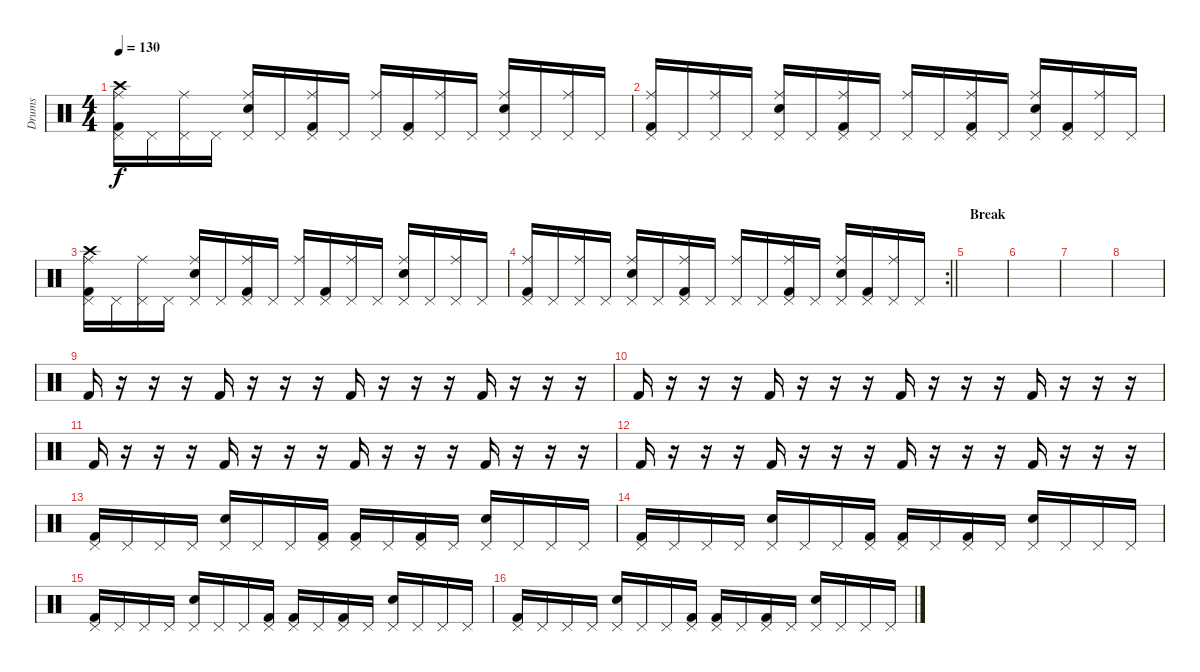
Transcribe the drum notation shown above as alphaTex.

\track ("Drums" "Drums") {instrument percussion}
\staff {score}
\articulation defaults
\ts (4 4)
\tempo 130
\clef neutral
\ks c
("Crash high (hit)" "Pedal Hi-Hat (hit)" "Ride (middle)" "Kick (hit) 2").16{dy f} "Pedal Hi-Hat (hit)".16 ("Pedal Hi-Hat (hit)" "Ride (middle)").16 "Pedal Hi-Hat (hit)".16 ("Pedal Hi-Hat (hit)" "Ride (middle)" "Electric Snare (hit)").16 "Pedal Hi-Hat (hit)".16 ("Pedal Hi-Hat (hit)" "Ride (middle)" "Kick (hit) 2").16 "Pedal Hi-Hat (hit)".16 ("Pedal Hi-Hat (hit)" "Ride (middle)").16 ("Pedal Hi-Hat (hit)" "Kick (hit) 2").16 ("Pedal Hi-Hat (hit)" "Ride (middle)").16 "Pedal Hi-Hat (hit)".16 ("Pedal Hi-Hat (hit)" "Ride (middle)" "Electric Snare (hit)").16 "Pedal Hi-Hat (hit)".16 ("Pedal Hi-Hat (hit)" "Ride (middle)").16 "Pedal Hi-Hat (hit)".16 |
("Ride (middle)" "Pedal Hi-Hat (hit)" "Kick (hit) 2").16 "Pedal Hi-Hat (hit)".16 ("Ride (middle)" "Pedal Hi-Hat (hit)").16 "Pedal Hi-Hat (hit)".16 ("Ride (middle)" "Pedal Hi-Hat (hit)" "Electric Snare (hit)").16 "Pedal Hi-Hat (hit)".16 ("Ride (middle)" "Pedal Hi-Hat (hit)" "Kick (hit) 2").16 "Pedal Hi-Hat (hit)".16 ("Ride (middle)" "Pedal Hi-Hat (hit)").16 "Pedal Hi-Hat (hit)".16 ("Ride (middle)" "Pedal Hi-Hat (hit)" "Kick (hit) 2").16 "Pedal Hi-Hat (hit)".16 ("Ride (middle)" "Pedal Hi-Hat (hit)" "Electric Snare (hit)").16 ("Pedal Hi-Hat (hit)" "Kick (hit) 2").16 ("Ride (middle)" "Pedal Hi-Hat (hit)").16 "Pedal Hi-Hat (hit)".16 |
("Crash high (hit)" "Pedal Hi-Hat (hit)" "Ride (middle)" "Kick (hit) 2").16 "Pedal Hi-Hat (hit)".16 ("Pedal Hi-Hat (hit)" "Ride (middle)").16 "Pedal Hi-Hat (hit)".16 ("Pedal Hi-Hat (hit)" "Ride (middle)" "Electric Snare (hit)").16 "Pedal Hi-Hat (hit)".16 ("Pedal Hi-Hat (hit)" "Ride (middle)" "Kick (hit) 2").16 "Pedal Hi-Hat (hit)".16 ("Pedal Hi-Hat (hit)" "Ride (middle)").16 ("Pedal Hi-Hat (hit)" "Kick (hit) 2").16 ("Pedal Hi-Hat (hit)" "Ride (middle)").16 "Pedal Hi-Hat (hit)".16 ("Pedal Hi-Hat (hit)" "Ride (middle)" "Electric Snare (hit)").16 "Pedal Hi-Hat (hit)".16 ("Pedal Hi-Hat (hit)" "Ride (middle)").16 "Pedal Hi-Hat (hit)".16 |
\rc 2
\barLineRight lightlight
("Ride (middle)" "Pedal Hi-Hat (hit)" "Kick (hit) 2").16 "Pedal Hi-Hat (hit)".16 ("Ride (middle)" "Pedal Hi-Hat (hit)").16 "Pedal Hi-Hat (hit)".16 ("Ride (middle)" "Pedal Hi-Hat (hit)" "Electric Snare (hit)").16 "Pedal Hi-Hat (hit)".16 ("Ride (middle)" "Pedal Hi-Hat (hit)" "Kick (hit) 2").16 "Pedal Hi-Hat (hit)".16 ("Ride (middle)" "Pedal Hi-Hat (hit)").16 "Pedal Hi-Hat (hit)".16 ("Ride (middle)" "Pedal Hi-Hat (hit)" "Kick (hit) 2").16 "Pedal Hi-Hat (hit)".16 ("Ride (middle)" "Pedal Hi-Hat (hit)" "Electric Snare (hit)").16 ("Pedal Hi-Hat (hit)" "Kick (hit) 2").16 ("Ride (middle)" "Pedal Hi-Hat (hit)").16 "Pedal Hi-Hat (hit)".16 |
\section ("" "Break")
|
|
|
|
"Kick (hit) 2".16 r.16 r.16 r.16 "Kick (hit) 2".16 r.16 r.16 r.16 "Kick (hit) 2".16 r.16 r.16 r.16 "Kick (hit) 2".16 r.16 r.16 r.16 |
"Kick (hit) 2".16 r.16 r.16 r.16 "Kick (hit) 2".16 r.16 r.16 r.16 "Kick (hit) 2".16 r.16 r.16 r.16 "Kick (hit) 2".16 r.16 r.16 r.16 |
"Kick (hit) 2".16 r.16 r.16 r.16 "Kick (hit) 2".16 r.16 r.16 r.16 "Kick (hit) 2".16 r.16 r.16 r.16 "Kick (hit) 2".16 r.16 r.16 r.16 |
"Kick (hit) 2".16 r.16 r.16 r.16 "Kick (hit) 2".16 r.16 r.16 r.16 "Kick (hit) 2".16 r.16 r.16 r.16 "Kick (hit) 2".16 r.16 r.16 r.16 |
("Pedal Hi-Hat (hit)" "Kick (hit) 2").16 "Pedal Hi-Hat (hit)".16 "Pedal Hi-Hat (hit)".16 "Pedal Hi-Hat (hit)".16 ("Pedal Hi-Hat (hit)" "Snare (hit) 2").16 "Pedal Hi-Hat (hit)".16 "Pedal Hi-Hat (hit)".16 ("Pedal Hi-Hat (hit)" "Kick (hit) 2").16 ("Pedal Hi-Hat (hit)" "Kick (hit) 2").16 "Pedal Hi-Hat (hit)".16 ("Pedal Hi-Hat (hit)" "Kick (hit) 2").16 "Pedal Hi-Hat (hit)".16 ("Pedal Hi-Hat (hit)" "Snare (hit) 2").16 "Pedal Hi-Hat (hit)".16 "Pedal Hi-Hat (hit)".16 "Pedal Hi-Hat (hit)".16 |
("Pedal Hi-Hat (hit)" "Kick (hit) 2").16 "Pedal Hi-Hat (hit)".16 "Pedal Hi-Hat (hit)".16 "Pedal Hi-Hat (hit)".16 ("Pedal Hi-Hat (hit)" "Snare (hit) 2").16 "Pedal Hi-Hat (hit)".16 "Pedal Hi-Hat (hit)".16 ("Pedal Hi-Hat (hit)" "Kick (hit) 2").16 ("Pedal Hi-Hat (hit)" "Kick (hit) 2").16 "Pedal Hi-Hat (hit)".16 ("Pedal Hi-Hat (hit)" "Kick (hit) 2").16 "Pedal Hi-Hat (hit)".16 ("Pedal Hi-Hat (hit)" "Snare (hit) 2").16 "Pedal Hi-Hat (hit)".16 "Pedal Hi-Hat (hit)".16 "Pedal Hi-Hat (hit)".16 |
("Pedal Hi-Hat (hit)" "Kick (hit) 2").16 "Pedal Hi-Hat (hit)".16 "Pedal Hi-Hat (hit)".16 "Pedal Hi-Hat (hit)".16 ("Pedal Hi-Hat (hit)" "Snare (hit) 2").16 "Pedal Hi-Hat (hit)".16 "Pedal Hi-Hat (hit)".16 ("Pedal Hi-Hat (hit)" "Kick (hit) 2").16 ("Pedal Hi-Hat (hit)" "Kick (hit) 2").16 "Pedal Hi-Hat (hit)".16 ("Pedal Hi-Hat (hit)" "Kick (hit) 2").16 "Pedal Hi-Hat (hit)".16 ("Pedal Hi-Hat (hit)" "Snare (hit) 2").16 "Pedal Hi-Hat (hit)".16 "Pedal Hi-Hat (hit)".16 "Pedal Hi-Hat (hit)".16 |
("Pedal Hi-Hat (hit)" "Kick (hit) 2").16 "Pedal Hi-Hat (hit)".16 "Pedal Hi-Hat (hit)".16 "Pedal Hi-Hat (hit)".16 ("Pedal Hi-Hat (hit)" "Snare (hit) 2").16 "Pedal Hi-Hat (hit)".16 "Pedal Hi-Hat (hit)".16 ("Pedal Hi-Hat (hit)" "Kick (hit) 2").16 ("Pedal Hi-Hat (hit)" "Kick (hit) 2").16 "Pedal Hi-Hat (hit)".16 ("Pedal Hi-Hat (hit)" "Kick (hit) 2").16 "Pedal Hi-Hat (hit)".16 ("Pedal Hi-Hat (hit)" "Snare (hit) 2").16 "Pedal Hi-Hat (hit)".16 "Pedal Hi-Hat (hit)".16 "Pedal Hi-Hat (hit)".16
